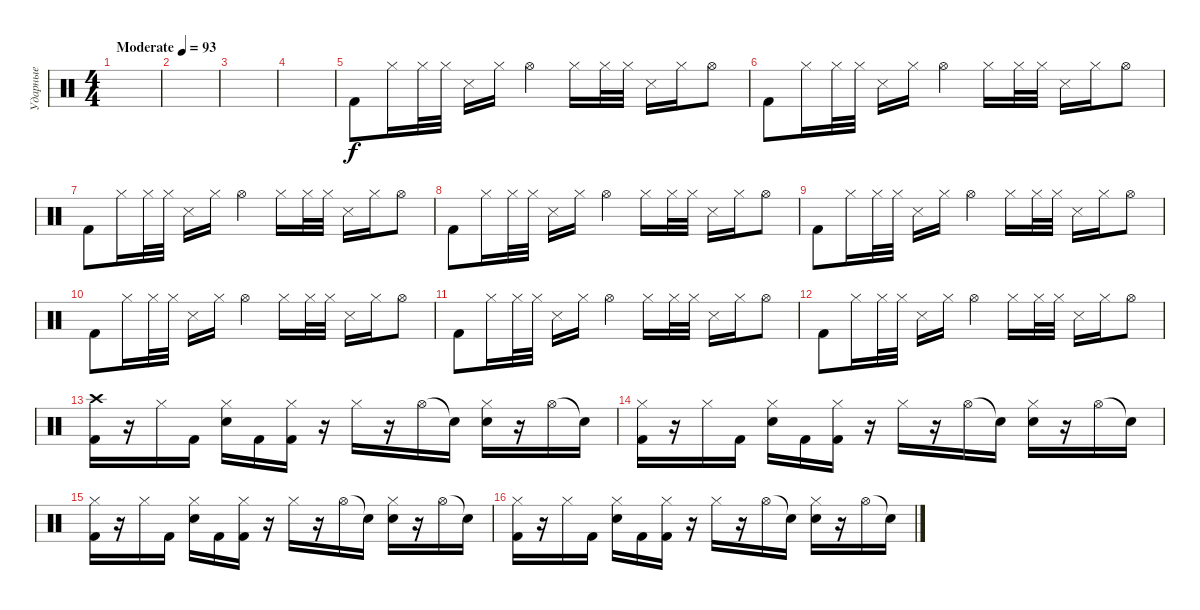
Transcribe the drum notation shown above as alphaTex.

\track ("Ударные" "Ударные") {instrument percussion}
\staff {score}
\articulation defaults
\ts (4 4)
\tempo (93 "Moderate")
\clef neutral
\ks c
|
|
|
|
"Kick (hit) 2".8 "Hi-Hat (closed)".16 "Hi-Hat (closed)".32 "Hi-Hat (closed)".32 "Snare (side stick) 3".16 "Hi-Hat (closed)".16 "Hi-Hat (open)".4 "Hi-Hat (closed)".16 "Hi-Hat (closed)".32 "Hi-Hat (closed)".32 "Snare (side stick) 3".16 "Hi-Hat (closed)".16 "Hi-Hat (open)".8 |
"Kick (hit) 2".8 "Hi-Hat (closed)".16 "Hi-Hat (closed)".32 "Hi-Hat (closed)".32 "Snare (side stick) 3".16 "Hi-Hat (closed)".16 "Hi-Hat (open)".4 "Hi-Hat (closed)".16 "Hi-Hat (closed)".32 "Hi-Hat (closed)".32 "Snare (side stick) 3".16 "Hi-Hat (closed)".16 "Hi-Hat (open)".8 |
"Kick (hit) 2".8 "Hi-Hat (closed)".16 "Hi-Hat (closed)".32 "Hi-Hat (closed)".32 "Snare (side stick) 3".16 "Hi-Hat (closed)".16 "Hi-Hat (open)".4 "Hi-Hat (closed)".16 "Hi-Hat (closed)".32 "Hi-Hat (closed)".32 "Snare (side stick) 3".16 "Hi-Hat (closed)".16 "Hi-Hat (open)".8 |
"Kick (hit) 2".8 "Hi-Hat (closed)".16 "Hi-Hat (closed)".32 "Hi-Hat (closed)".32 "Snare (side stick) 3".16 "Hi-Hat (closed)".16 "Hi-Hat (open)".4 "Hi-Hat (closed)".16 "Hi-Hat (closed)".32 "Hi-Hat (closed)".32 "Snare (side stick) 3".16 "Hi-Hat (closed)".16 "Hi-Hat (open)".8 |
"Kick (hit) 2".8 "Hi-Hat (closed)".16 "Hi-Hat (closed)".32 "Hi-Hat (closed)".32 "Snare (side stick) 3".16 "Hi-Hat (closed)".16 "Hi-Hat (open)".4 "Hi-Hat (closed)".16 "Hi-Hat (closed)".32 "Hi-Hat (closed)".32 "Snare (side stick) 3".16 "Hi-Hat (closed)".16 "Hi-Hat (open)".8 |
"Kick (hit) 2".8 "Hi-Hat (closed)".16 "Hi-Hat (closed)".32 "Hi-Hat (closed)".32 "Snare (side stick) 3".16 "Hi-Hat (closed)".16 "Hi-Hat (open)".4 "Hi-Hat (closed)".16 "Hi-Hat (closed)".32 "Hi-Hat (closed)".32 "Snare (side stick) 3".16 "Hi-Hat (closed)".16 "Hi-Hat (open)".8 |
"Kick (hit) 2".8 "Hi-Hat (closed)".16 "Hi-Hat (closed)".32 "Hi-Hat (closed)".32 "Snare (side stick) 3".16 "Hi-Hat (closed)".16 "Hi-Hat (open)".4 "Hi-Hat (closed)".16 "Hi-Hat (closed)".32 "Hi-Hat (closed)".32 "Snare (side stick) 3".16 "Hi-Hat (closed)".16 "Hi-Hat (open)".8 |
"Kick (hit) 2".8 "Hi-Hat (closed)".16 "Hi-Hat (closed)".32 "Hi-Hat (closed)".32 "Snare (side stick) 3".16 "Hi-Hat (closed)".16 "Hi-Hat (open)".4 "Hi-Hat (closed)".16 "Hi-Hat (closed)".32 "Hi-Hat (closed)".32 "Snare (side stick) 3".16 "Hi-Hat (closed)".16 "Hi-Hat (open)".8 |
("Crash high (hit)" "Kick (hit) 2").16 r.16 "Hi-Hat (closed)".16 "Kick (hit) 2".16 ("Hi-Hat (closed)" "Electric Snare (hit)").16 "Kick (hit) 2".16 ("Hi-Hat (closed)" "Kick (hit) 2").16 r.16 "Hi-Hat (closed)".16 r.16 "Hi-Hat (open)".16 "Snare (hit)"{t}.16 ("Hi-Hat (closed)" "Electric Snare (hit)").16 r.16 "Hi-Hat (open)".16 "Snare (hit)"{t}.16 |
("Hi-Hat (closed)" "Kick (hit) 2").16 r.16 "Hi-Hat (closed)".16 "Kick (hit) 2".16 ("Hi-Hat (closed)" "Electric Snare (hit)").16 "Kick (hit) 2".16 ("Hi-Hat (closed)" "Kick (hit) 2").16 r.16 "Hi-Hat (closed)".16 r.16 "Hi-Hat (open)".16 "Snare (hit)"{t}.16 ("Hi-Hat (closed)" "Electric Snare (hit)").16 r.16 "Hi-Hat (open)".16 "Snare (hit)"{t}.16 |
("Hi-Hat (closed)" "Kick (hit) 2").16 r.16 "Hi-Hat (closed)".16 "Kick (hit) 2".16 ("Hi-Hat (closed)" "Electric Snare (hit)").16 "Kick (hit) 2".16 ("Hi-Hat (closed)" "Kick (hit) 2").16 r.16 "Hi-Hat (closed)".16 r.16 "Hi-Hat (open)".16 "Snare (hit)"{t}.16 ("Hi-Hat (closed)" "Electric Snare (hit)").16 r.16 "Hi-Hat (open)".16 "Snare (hit)"{t}.16 |
("Hi-Hat (closed)" "Kick (hit) 2").16 r.16 "Hi-Hat (closed)".16 "Kick (hit) 2".16 ("Hi-Hat (closed)" "Electric Snare (hit)").16 "Kick (hit) 2".16 ("Hi-Hat (closed)" "Kick (hit) 2").16 r.16 "Hi-Hat (closed)".16 r.16 "Hi-Hat (open)".16 "Snare (hit)"{t}.16 ("Hi-Hat (closed)" "Electric Snare (hit)").16 r.16 "Hi-Hat (open)".16 "Snare (hit)"{t}.16
